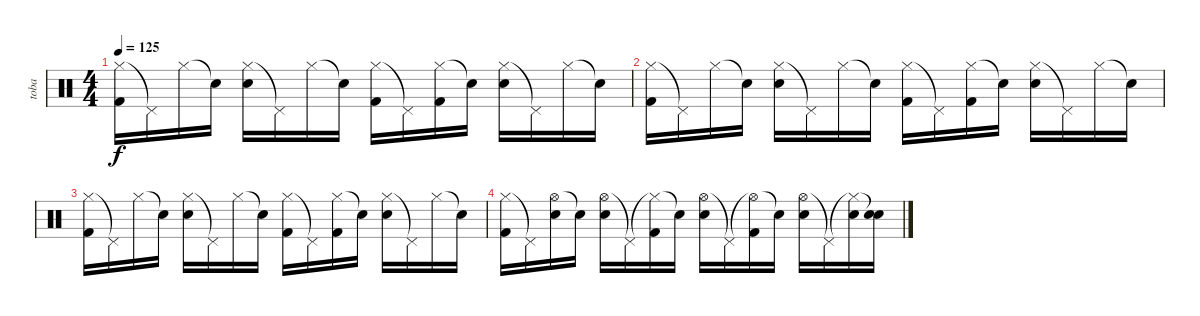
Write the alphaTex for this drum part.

\track ("toba" "toba") {instrument percussion}
\staff {score}
\articulation defaults
\ts (4 4)
\tempo 125
\clef neutral
\ks c
("Hi-Hat (closed)" "Kick (hit) 2").16{dy f volume 4} "Pedal Hi-Hat (hit)"{t}.16 "Hi-Hat (closed)".16 "Snare (hit)"{t}.16 ("Hi-Hat (closed)" "Electric Snare (hit)").16 "Pedal Hi-Hat (hit)"{t}.16 "Hi-Hat (closed)".16 "Snare (hit)"{t}.16 ("Hi-Hat (closed)" "Kick (hit) 2").16 "Pedal Hi-Hat (hit)"{t}.16 ("Hi-Hat (closed)" "Kick (hit) 2").16 "Snare (hit)"{t}.16 ("Hi-Hat (closed)" "Electric Snare (hit)").16 "Pedal Hi-Hat (hit)"{t}.16 "Hi-Hat (closed)".16 "Snare (hit)"{t}.16 |
("Hi-Hat (closed)" "Kick (hit) 2").16 "Pedal Hi-Hat (hit)"{t}.16 "Hi-Hat (closed)".16 "Snare (hit)"{t}.16 ("Hi-Hat (closed)" "Electric Snare (hit)").16 "Pedal Hi-Hat (hit)"{t}.16 "Hi-Hat (closed)".16 "Snare (hit)"{t}.16 ("Hi-Hat (closed)" "Kick (hit) 2").16 "Pedal Hi-Hat (hit)"{t}.16 ("Hi-Hat (closed)" "Kick (hit) 2").16 "Snare (hit)"{t}.16 ("Hi-Hat (closed)" "Electric Snare (hit)").16 "Pedal Hi-Hat (hit)"{t}.16 "Hi-Hat (closed)".16 "Snare (hit)"{t}.16 |
("Hi-Hat (closed)" "Kick (hit) 2").16 "Pedal Hi-Hat (hit)"{t}.16 "Hi-Hat (closed)".16 "Snare (hit)"{t}.16 ("Hi-Hat (closed)" "Electric Snare (hit)").16 "Pedal Hi-Hat (hit)"{t}.16 "Hi-Hat (closed)".16 "Snare (hit)"{t}.16 ("Hi-Hat (closed)" "Kick (hit) 2").16 "Pedal Hi-Hat (hit)"{t}.16 ("Hi-Hat (closed)" "Kick (hit) 2").16 "Snare (hit)"{t}.16 ("Hi-Hat (closed)" "Electric Snare (hit)").16 "Pedal Hi-Hat (hit)"{t}.16 "Hi-Hat (closed)".16 "Snare (hit)"{t}.16 |
("Hi-Hat (closed)" "Kick (hit) 2").16 "Pedal Hi-Hat (hit)"{t}.16 ("Hi-Hat (open)" "Electric Snare (hit)").16 "Snare (hit)"{t}.16 ("Hi-Hat (open)" "Electric Snare (hit)").16 "Pedal Hi-Hat (hit)"{t}.16 ("Hi-Hat (closed)"{t} "Kick (hit) 2").16 "Snare (hit)"{t}.16 ("Hi-Hat (open)" "Electric Snare (hit)").16 "Pedal Hi-Hat (hit)"{t}.16 ("Hi-Hat (open)"{t} "Kick (hit) 2").16 "Snare (hit)"{t}.16 ("Hi-Hat (open)" "Electric Snare (hit)").16 "Pedal Hi-Hat (hit)"{t}.16 ("Hi-Hat (closed)"{t} "Electric Snare (hit)").16 ("Snare (hit)"{t} "Electric Snare (hit)").16
